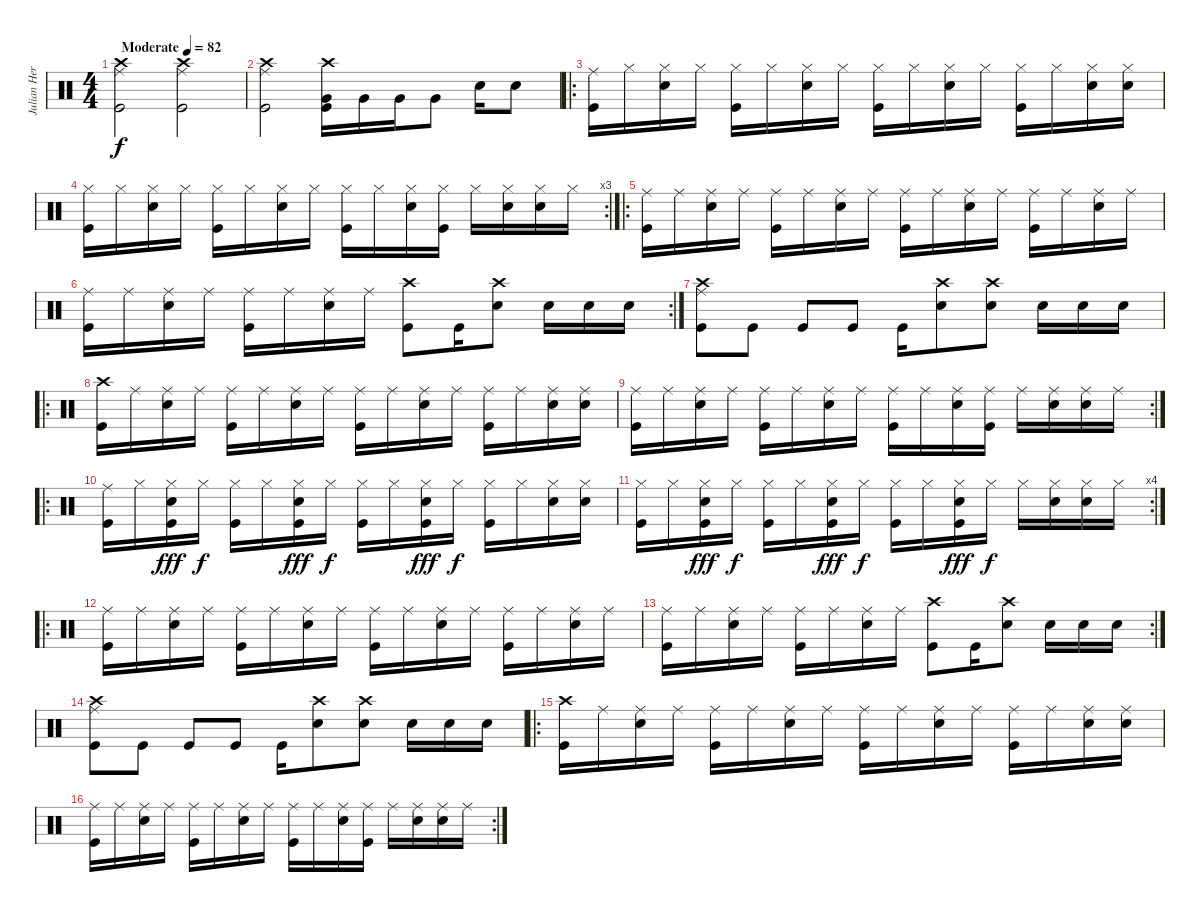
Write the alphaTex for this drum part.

\track ("Julian Hernandez - Batería" "Julian Her") {instrument percussion}
\staff {score}
\articulation defaults
\ts (4 4)
\tempo (82 "Moderate")
\clef neutral
\ks c
("Ride (middle)" "Crash high (hit)" "Kick (hit)").2{dy f} ("Ride (middle)" "Crash high (hit)" "Kick (hit)").2 |
("Ride (middle)" "Crash high (hit)" "Kick (hit)").2 ("Crash high (hit)" "Very Low Tom (hit)" "Kick (hit)").16 "Very Low Tom (hit)".16 "Very Low Tom (hit)".16 "Very Low Tom (hit)".8 "Snare (hit) 2".16 "Snare (hit) 2".8 |
\ro
("Ride (middle)" "Kick (hit)").16 "Hi-Hat (closed)".16 ("Hi-Hat (closed)" "Snare (hit) 2").16 "Hi-Hat (closed)".16 ("Hi-Hat (closed)" "Kick (hit)").16 "Hi-Hat (closed)".16 ("Hi-Hat (closed)" "Snare (hit) 2").16 "Hi-Hat (closed)".16 ("Hi-Hat (closed)" "Kick (hit)").16 "Hi-Hat (closed)".16 ("Hi-Hat (closed)" "Snare (hit) 2").16 "Hi-Hat (closed)".16 ("Hi-Hat (closed)" "Kick (hit)").16 "Hi-Hat (closed)".16 ("Hi-Hat (closed)" "Snare (hit) 2").16 ("Hi-Hat (closed)" "Snare (hit) 2").16 |
\rc 3
("Hi-Hat (closed)" "Kick (hit)").16 "Hi-Hat (closed)".16 ("Hi-Hat (closed)" "Snare (hit) 2").16 "Hi-Hat (closed)".16 ("Hi-Hat (closed)" "Kick (hit)").16 "Hi-Hat (closed)".16 ("Hi-Hat (closed)" "Snare (hit) 2").16 "Hi-Hat (closed)".16 ("Hi-Hat (closed)" "Kick (hit)").16 "Hi-Hat (closed)".16 ("Hi-Hat (closed)" "Snare (hit) 2").16 ("Hi-Hat (closed)" "Kick (hit)").16 "Hi-Hat (closed)".16 ("Hi-Hat (closed)" "Snare (hit) 2").16 ("Hi-Hat (closed)" "Snare (hit) 2").16 "Hi-Hat (closed)".16 |
\ro
("Ride (middle)" "Kick (hit)").16 "Ride (middle)".16 ("Ride (middle)" "Snare (hit) 2").16 "Ride (middle)".16 ("Ride (middle)" "Kick (hit)").16 "Ride (middle)".16 ("Ride (middle)" "Snare (hit) 2").16 "Ride (middle)".16 ("Ride (middle)" "Kick (hit)").16 "Ride (middle)".16 ("Ride (middle)" "Snare (hit) 2").16 "Ride (middle)".16 ("Ride (middle)" "Kick (hit)").16 "Ride (middle)".16 ("Ride (middle)" "Snare (hit) 2").16 "Ride (middle)".16 |
\rc 2
("Ride (middle)" "Kick (hit)").16 "Ride (middle)".16 ("Ride (middle)" "Snare (hit) 2").16 "Ride (middle)".16 ("Ride (middle)" "Kick (hit)").16 "Ride (middle)".16 ("Ride (middle)" "Snare (hit) 2").16 "Ride (middle)".16 ("Crash high (hit)" "Kick (hit)").8 "Kick (hit)".16 ("Crash high (hit)" "Snare (hit) 2").8 "Snare (hit) 2".16 "Snare (hit) 2".16 "Snare (hit) 2".16 |
("Ride (middle)" "Crash high (hit)" "Kick (hit)").8 "Kick (hit)".8 "Kick (hit)".8 "Kick (hit)".8 "Kick (hit)".16 ("Crash high (hit)" "Snare (hit) 2").8 ("Crash high (hit)" "Snare (hit) 2").8 "Snare (hit) 2".16 "Snare (hit) 2".16 "Snare (hit) 2".16 |
\ro
("Crash high (hit)" "Kick (hit)").16 "Ride (middle)".16 ("Ride (middle)" "Snare (hit) 2").16 "Ride (middle)".16 ("Ride (middle)" "Kick (hit)").16 "Ride (middle)".16 ("Ride (middle)" "Snare (hit) 2").16 "Ride (middle)".16 ("Ride (middle)" "Kick (hit)").16 "Ride (middle)".16 ("Ride (middle)" "Snare (hit) 2").16 "Ride (middle)".16 ("Ride (middle)" "Kick (hit)").16 "Ride (middle)".16 ("Ride (middle)" "Snare (hit) 2").16 ("Ride (middle)" "Snare (hit) 2").16 |
\rc 2
("Ride (middle)" "Kick (hit)").16 "Ride (middle)".16 ("Ride (middle)" "Snare (hit) 2").16 "Ride (middle)".16 ("Ride (middle)" "Kick (hit)").16 "Ride (middle)".16 ("Ride (middle)" "Snare (hit) 2").16 "Ride (middle)".16 ("Ride (middle)" "Kick (hit)").16 "Ride (middle)".16 ("Ride (middle)" "Snare (hit) 2").16 ("Ride (middle)" "Kick (hit)").16 "Ride (middle)".16 ("Ride (middle)" "Snare (hit) 2").16 ("Ride (middle)" "Snare (hit) 2").16 "Ride (middle)".16 |
\ro
("Ride (middle)" "Kick (hit)").16 "Hi-Hat (closed)".16 ("Hi-Hat (closed)" "Snare (hit) 2" "Kick (hit)").16{dy fff} "Hi-Hat (closed)".16{dy f} ("Hi-Hat (closed)" "Kick (hit)").16 "Hi-Hat (closed)".16 ("Hi-Hat (closed)" "Snare (hit) 2" "Kick (hit)").16{dy fff} "Hi-Hat (closed)".16{dy f} ("Hi-Hat (closed)" "Kick (hit)").16 "Hi-Hat (closed)".16 ("Hi-Hat (closed)" "Snare (hit) 2" "Kick (hit)").16{dy fff} "Hi-Hat (closed)".16{dy f} ("Hi-Hat (closed)" "Kick (hit)").16 "Hi-Hat (closed)".16 ("Hi-Hat (closed)" "Snare (hit) 2").16 ("Hi-Hat (closed)" "Snare (hit) 2").16 |
\rc 4
("Hi-Hat (closed)" "Kick (hit)").16 "Hi-Hat (closed)".16 ("Hi-Hat (closed)" "Snare (hit) 2" "Kick (hit)").16{dy fff} "Hi-Hat (closed)".16{dy f} ("Hi-Hat (closed)" "Kick (hit)").16 "Hi-Hat (closed)".16 ("Hi-Hat (closed)" "Snare (hit) 2" "Kick (hit)").16{dy fff} "Hi-Hat (closed)".16{dy f} ("Hi-Hat (closed)" "Kick (hit)").16 "Hi-Hat (closed)".16 ("Hi-Hat (closed)" "Snare (hit) 2" "Kick (hit)").16{dy fff} "Hi-Hat (closed)".16{dy f} "Hi-Hat (closed)".16 ("Hi-Hat (closed)" "Snare (hit) 2").16 ("Hi-Hat (closed)" "Snare (hit) 2").16 "Hi-Hat (closed)".16 |
\ro
("Ride (middle)" "Kick (hit)").16 "Ride (middle)".16 ("Ride (middle)" "Snare (hit) 2").16 "Ride (middle)".16 ("Ride (middle)" "Kick (hit)").16 "Ride (middle)".16 ("Ride (middle)" "Snare (hit) 2").16 "Ride (middle)".16 ("Ride (middle)" "Kick (hit)").16 "Ride (middle)".16 ("Ride (middle)" "Snare (hit) 2").16 "Ride (middle)".16 ("Ride (middle)" "Kick (hit)").16 "Ride (middle)".16 ("Ride (middle)" "Snare (hit) 2").16 "Ride (middle)".16 |
\rc 2
("Ride (middle)" "Kick (hit)").16 "Ride (middle)".16 ("Ride (middle)" "Snare (hit) 2").16 "Ride (middle)".16 ("Ride (middle)" "Kick (hit)").16 "Ride (middle)".16 ("Ride (middle)" "Snare (hit) 2").16 "Ride (middle)".16 ("Crash high (hit)" "Kick (hit)").8 "Kick (hit)".16 ("Crash high (hit)" "Snare (hit) 2").8 "Snare (hit) 2".16 "Snare (hit) 2".16 "Snare (hit) 2".16 |
("Ride (middle)" "Crash high (hit)" "Kick (hit)").8 "Kick (hit)".8 "Kick (hit)".8 "Kick (hit)".8 "Kick (hit)".16 ("Crash high (hit)" "Snare (hit) 2").8 ("Crash high (hit)" "Snare (hit) 2").8 "Snare (hit) 2".16 "Snare (hit) 2".16 "Snare (hit) 2".16 |
\ro
("Crash high (hit)" "Kick (hit)").16 "Ride (middle)".16 ("Ride (middle)" "Snare (hit) 2").16 "Ride (middle)".16 ("Ride (middle)" "Kick (hit)").16 "Ride (middle)".16 ("Ride (middle)" "Snare (hit) 2").16 "Ride (middle)".16 ("Ride (middle)" "Kick (hit)").16 "Ride (middle)".16 ("Ride (middle)" "Snare (hit) 2").16 "Ride (middle)".16 ("Ride (middle)" "Kick (hit)").16 "Ride (middle)".16 ("Ride (middle)" "Snare (hit) 2").16 ("Ride (middle)" "Snare (hit) 2").16 |
\rc 2
("Ride (middle)" "Kick (hit)").16 "Ride (middle)".16 ("Ride (middle)" "Snare (hit) 2").16 "Ride (middle)".16 ("Ride (middle)" "Kick (hit)").16 "Ride (middle)".16 ("Ride (middle)" "Snare (hit) 2").16 "Ride (middle)".16 ("Ride (middle)" "Kick (hit)").16 "Ride (middle)".16 ("Ride (middle)" "Snare (hit) 2").16 ("Ride (middle)" "Kick (hit)").16 "Ride (middle)".16 ("Ride (middle)" "Snare (hit) 2").16 ("Ride (middle)" "Snare (hit) 2").16 "Ride (middle)".16
